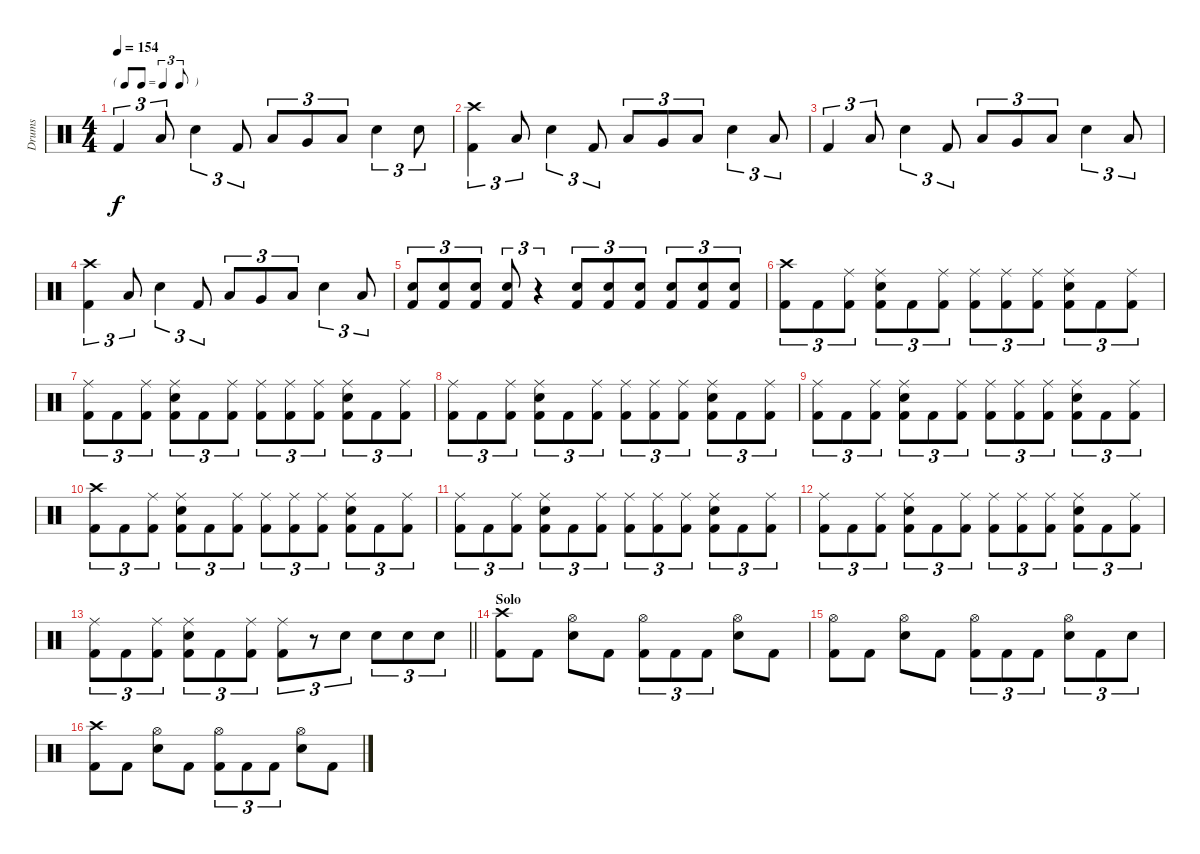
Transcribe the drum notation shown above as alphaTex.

\track ("Drums" "Drums") {instrument percussion}
\staff {score}
\articulation defaults
\ts (4 4)
\tf triplet8th
\tempo 154
\clef neutral
\ks c "Kick (hit) 2".4{tu (3 2) dy f} "Low Floor Tom (hit)".8{tu (3 2)} "Snare (hit) 2".4{tu (3 2)} "Kick (hit) 2".8{tu (3 2)} "Low Tom (hit)".8{tu (3 2)} "Very Low Tom (hit)".8{tu (3 2)} "Low Floor Tom (hit)".8{tu (3 2)} "Snare (hit) 2".4{tu (3 2)} "Snare (hit) 2".8{tu (3 2)}
|
("Crash high (hit)" "Kick (hit) 2").4{tu (3 2)} "Low Floor Tom (hit)".8{tu (3 2)} "Snare (hit) 2".4{tu (3 2)} "Kick (hit) 2".8{tu (3 2)} "Low Tom (hit)".8{tu (3 2)} "Very Low Tom (hit)".8{tu (3 2)} "Low Floor Tom (hit)".8{tu (3 2)} "Snare (hit) 2".4{tu (3 2)} "Low Floor Tom (hit)".8{tu (3 2)} |
"Kick (hit) 2".4{tu (3 2)} "Low Floor Tom (hit)".8{tu (3 2)} "Snare (hit) 2".4{tu (3 2)} "Kick (hit) 2".8{tu (3 2)} "Low Tom (hit)".8{tu (3 2)} "Very Low Tom (hit)".8{tu (3 2)} "Low Floor Tom (hit)".8{tu (3 2)} "Snare (hit) 2".4{tu (3 2)} "Low Floor Tom (hit)".8{tu (3 2)} |
("Crash high (hit)" "Kick (hit) 2").4{tu (3 2)} "Low Floor Tom (hit)".8{tu (3 2)} "Snare (hit) 2".4{tu (3 2)} "Kick (hit) 2".8{tu (3 2)} "Low Tom (hit)".8{tu (3 2)} "Very Low Tom (hit)".8{tu (3 2)} "Low Floor Tom (hit)".8{tu (3 2)} "Snare (hit) 2".4{tu (3 2)} "Low Floor Tom (hit)".8{tu (3 2)} |
("Snare (hit) 2" "Kick (hit) 2").8{tu (3 2)} ("Snare (hit) 2" "Kick (hit) 2").8{tu (3 2)} ("Snare (hit) 2" "Kick (hit) 2").8{tu (3 2)} ("Snare (hit) 2" "Kick (hit) 2").8{tu (3 2)} r.4{tu (3 2)} ("Snare (hit) 2" "Kick (hit) 2").8{tu (3 2)} ("Snare (hit) 2" "Kick (hit) 2").8{tu (3 2)} ("Snare (hit) 2" "Kick (hit) 2").8{tu (3 2)} ("Snare (hit) 2" "Kick (hit) 2").8{tu (3 2)} ("Snare (hit) 2" "Kick (hit) 2").8{tu (3 2)} ("Snare (hit) 2" "Kick (hit) 2").8{tu (3 2)} |
("Crash high (hit)" "Kick (hit) 2").8{tu (3 2)} "Kick (hit) 2".8{tu (3 2)} ("Ride (middle)" "Kick (hit) 2").8{tu (3 2)} ("Ride (middle)" "Snare (hit) 2" "Kick (hit) 2").8{tu (3 2)} "Kick (hit) 2".8{tu (3 2)} ("Ride (middle)" "Kick (hit) 2").8{tu (3 2)} ("Ride (middle)" "Kick (hit) 2").8{tu (3 2)} ("Ride (middle)" "Kick (hit) 2").8{tu (3 2)} ("Ride (middle)" "Kick (hit) 2").8{tu (3 2)} ("Ride (middle)" "Snare (hit) 2" "Kick (hit) 2").8{tu (3 2)} "Kick (hit) 2".8{tu (3 2)} ("Ride (middle)" "Kick (hit) 2").8{tu (3 2)} |
("Ride (middle)" "Kick (hit) 2").8{tu (3 2)} "Kick (hit) 2".8{tu (3 2)} ("Ride (middle)" "Kick (hit) 2").8{tu (3 2)} ("Ride (middle)" "Snare (hit) 2" "Kick (hit) 2").8{tu (3 2)} "Kick (hit) 2".8{tu (3 2)} ("Ride (middle)" "Kick (hit) 2").8{tu (3 2)} ("Ride (middle)" "Kick (hit) 2").8{tu (3 2)} ("Ride (middle)" "Kick (hit) 2").8{tu (3 2)} ("Ride (middle)" "Kick (hit) 2").8{tu (3 2)} ("Ride (middle)" "Snare (hit) 2" "Kick (hit) 2").8{tu (3 2)} "Kick (hit) 2".8{tu (3 2)} ("Ride (middle)" "Kick (hit) 2").8{tu (3 2)} |
("Ride (middle)" "Kick (hit) 2").8{tu (3 2)} "Kick (hit) 2".8{tu (3 2)} ("Ride (middle)" "Kick (hit) 2").8{tu (3 2)} ("Ride (middle)" "Snare (hit) 2" "Kick (hit) 2").8{tu (3 2)} "Kick (hit) 2".8{tu (3 2)} ("Ride (middle)" "Kick (hit) 2").8{tu (3 2)} ("Ride (middle)" "Kick (hit) 2").8{tu (3 2)} ("Ride (middle)" "Kick (hit) 2").8{tu (3 2)} ("Ride (middle)" "Kick (hit) 2").8{tu (3 2)} ("Ride (middle)" "Snare (hit) 2" "Kick (hit) 2").8{tu (3 2)} "Kick (hit) 2".8{tu (3 2)} ("Ride (middle)" "Kick (hit) 2").8{tu (3 2)} |
("Ride (middle)" "Kick (hit) 2").8{tu (3 2)} "Kick (hit) 2".8{tu (3 2)} ("Ride (middle)" "Kick (hit) 2").8{tu (3 2)} ("Ride (middle)" "Snare (hit) 2" "Kick (hit) 2").8{tu (3 2)} "Kick (hit) 2".8{tu (3 2)} ("Ride (middle)" "Kick (hit) 2").8{tu (3 2)} ("Ride (middle)" "Kick (hit) 2").8{tu (3 2)} ("Ride (middle)" "Kick (hit) 2").8{tu (3 2)} ("Ride (middle)" "Kick (hit) 2").8{tu (3 2)} ("Ride (middle)" "Snare (hit) 2" "Kick (hit) 2").8{tu (3 2)} "Kick (hit) 2".8{tu (3 2)} ("Ride (middle)" "Kick (hit) 2").8{tu (3 2)} |
("Crash high (hit)" "Kick (hit) 2").8{tu (3 2)} "Kick (hit) 2".8{tu (3 2)} ("Ride (middle)" "Kick (hit) 2").8{tu (3 2)} ("Ride (middle)" "Snare (hit) 2" "Kick (hit) 2").8{tu (3 2)} "Kick (hit) 2".8{tu (3 2)} ("Ride (middle)" "Kick (hit) 2").8{tu (3 2)} ("Ride (middle)" "Kick (hit) 2").8{tu (3 2)} ("Ride (middle)" "Kick (hit) 2").8{tu (3 2)} ("Ride (middle)" "Kick (hit) 2").8{tu (3 2)} ("Ride (middle)" "Snare (hit) 2" "Kick (hit) 2").8{tu (3 2)} "Kick (hit) 2".8{tu (3 2)} ("Ride (middle)" "Kick (hit) 2").8{tu (3 2)} |
("Ride (middle)" "Kick (hit) 2").8{tu (3 2)} "Kick (hit) 2".8{tu (3 2)} ("Ride (middle)" "Kick (hit) 2").8{tu (3 2)} ("Ride (middle)" "Snare (hit) 2" "Kick (hit) 2").8{tu (3 2)} "Kick (hit) 2".8{tu (3 2)} ("Ride (middle)" "Kick (hit) 2").8{tu (3 2)} ("Ride (middle)" "Kick (hit) 2").8{tu (3 2)} ("Ride (middle)" "Kick (hit) 2").8{tu (3 2)} ("Ride (middle)" "Kick (hit) 2").8{tu (3 2)} ("Ride (middle)" "Snare (hit) 2" "Kick (hit) 2").8{tu (3 2)} "Kick (hit) 2".8{tu (3 2)} ("Ride (middle)" "Kick (hit) 2").8{tu (3 2)} |
("Ride (middle)" "Kick (hit) 2").8{tu (3 2)} "Kick (hit) 2".8{tu (3 2)} ("Ride (middle)" "Kick (hit) 2").8{tu (3 2)} ("Ride (middle)" "Snare (hit) 2" "Kick (hit) 2").8{tu (3 2)} "Kick (hit) 2".8{tu (3 2)} ("Ride (middle)" "Kick (hit) 2").8{tu (3 2)} ("Ride (middle)" "Kick (hit) 2").8{tu (3 2)} ("Ride (middle)" "Kick (hit) 2").8{tu (3 2)} ("Ride (middle)" "Kick (hit) 2").8{tu (3 2)} ("Ride (middle)" "Snare (hit) 2" "Kick (hit) 2").8{tu (3 2)} "Kick (hit) 2".8{tu (3 2)} ("Ride (middle)" "Kick (hit) 2").8{tu (3 2)} |
\barLineRight lightlight
("Ride (middle)" "Kick (hit) 2").8{tu (3 2)} "Kick (hit) 2".8{tu (3 2)} ("Ride (middle)" "Kick (hit) 2").8{tu (3 2)} ("Ride (middle)" "Snare (hit) 2" "Kick (hit) 2").8{tu (3 2)} "Kick (hit) 2".8{tu (3 2)} ("Ride (middle)" "Kick (hit) 2").8{tu (3 2)} ("Ride (middle)" "Kick (hit) 2").8{tu (3 2)} r.8{tu (3 2)} "Snare (hit) 2".8{tu (3 2)} "Snare (hit) 2".8{tu (3 2)} "Snare (hit) 2".8{tu (3 2)} "Snare (hit) 2".8{tu (3 2)} |
\section ("" "Solo")
("Crash high (hit)" "Kick (hit) 2").8 "Kick (hit) 2".8 ("Hi-Hat (open)" "Snare (hit) 2").8 "Kick (hit) 2".8 ("Hi-Hat (open)" "Kick (hit) 2").8{tu (3 2)} "Kick (hit) 2".8{tu (3 2)} "Kick (hit) 2".8{tu (3 2)} ("Hi-Hat (open)" "Snare (hit) 2").8 "Kick (hit) 2".8 |
("Hi-Hat (open)" "Kick (hit) 2").8 "Kick (hit) 2".8 ("Hi-Hat (open)" "Snare (hit) 2").8 "Kick (hit) 2".8 ("Hi-Hat (open)" "Kick (hit) 2").8{tu (3 2)} "Kick (hit) 2".8{tu (3 2)} "Kick (hit) 2".8{tu (3 2)} ("Hi-Hat (open)" "Snare (hit) 2").8{tu (3 2)} "Kick (hit) 2".8{tu (3 2)} "Snare (hit) 2".8{tu (3 2)} |
("Crash high (hit)" "Kick (hit) 2").8 "Kick (hit) 2".8 ("Hi-Hat (open)" "Snare (hit) 2").8 "Kick (hit) 2".8 ("Hi-Hat (open)" "Kick (hit) 2").8{tu (3 2)} "Kick (hit) 2".8{tu (3 2)} "Kick (hit) 2".8{tu (3 2)} ("Hi-Hat (open)" "Snare (hit) 2").8 "Kick (hit) 2".8
